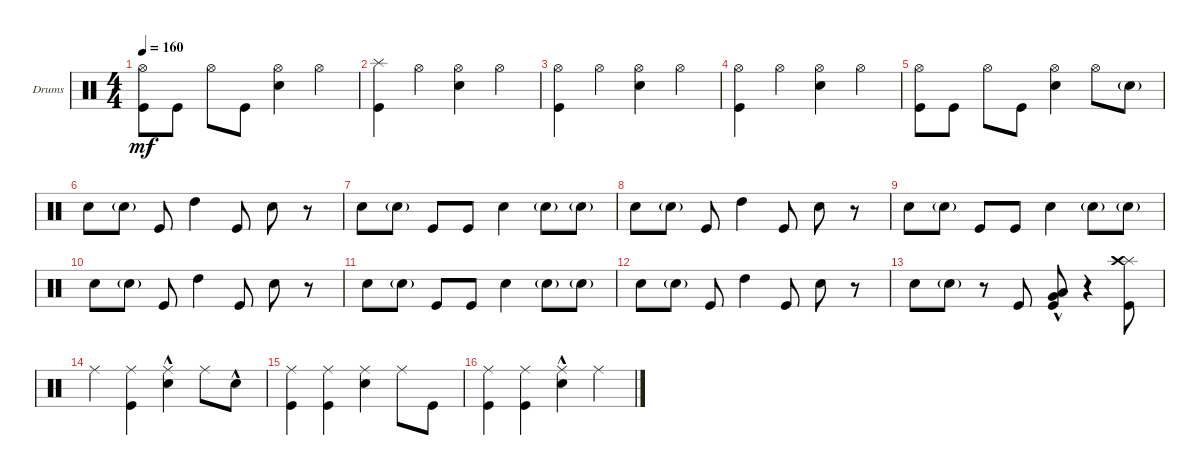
\defaultSystemsLayout 4
\bracketExtendMode groupsimilarinstruments
\firstSystemTrackNameOrientation horizontal
\otherSystemsTrackNameOrientation horizontal
\track ("Drumkit" "Drums") {instrument percussion}
\staff {score}
\articulation defaults
\ts (4 4)
\tempo 160
\clef neutral
\scale
0.333333
\ks c
("Kick (hit)" "Hi-Hat (open)").8{dy mf} "Kick (hit)".8 "Hi-Hat (open)".8 "Kick (hit)".8 ("Snare (hit) 2" "Hi-Hat (open)").4 "Hi-Hat (open)".4 |
\scale
0.333333 ("Kick (hit)" "Splash (hit)").4 "Hi-Hat (open)".4 ("Snare (hit) 2" "Hi-Hat (open)").4 "Hi-Hat (open)".4 |
\scale
0.333333 ("Kick (hit)" "Hi-Hat (open)").4 "Hi-Hat (open)".4 ("Snare (hit) 2" "Hi-Hat (open)").4 "Hi-Hat (open)".4 |
\scale
0.333333 ("Kick (hit)" "Hi-Hat (open)").4 "Hi-Hat (open)".4 ("Snare (hit) 2" "Hi-Hat (open)").4 "Hi-Hat (open)".4 |
\scale
0.333333 ("Kick (hit)" "Hi-Hat (open)").8 "Kick (hit)".8 "Hi-Hat (open)".8 "Kick (hit)".8 ("Snare (hit) 2" "Hi-Hat (open)").4 "Hi-Hat (open)".8 "Snare (hit) 2"{g}.8 |
\scale
0.333333 "Snare (hit) 2".8 "Snare (hit) 2"{g}.8 "Kick (hit)".8 "High Tom (hit)".4 "Kick (hit)".8 "Snare (hit) 2".8 r.8 |
\scale
0.333333 "Snare (hit) 2".8 "Snare (hit) 2"{g}.8 "Kick (hit)".8 "Kick (hit)".8 "Snare (hit) 2".4 "Snare (hit) 2"{g}.8 "Snare (hit) 2"{g}.8 |
\scale
0.333333 "Snare (hit) 2".8 "Snare (hit) 2"{g}.8 "Kick (hit)".8 "High Tom (hit)".4 "Kick (hit)".8 "Snare (hit) 2".8 r.8 |
\scale
0.333333 "Snare (hit) 2".8 "Snare (hit) 2"{g}.8 "Kick (hit)".8 "Kick (hit)".8 "Snare (hit) 2".4 "Snare (hit) 2"{g}.8 "Snare (hit) 2"{g}.8 |
\scale
0.333333 "Snare (hit) 2".8 "Snare (hit) 2"{g}.8 "Kick (hit)".8 "High Tom (hit)".4 "Kick (hit)".8 "Snare (hit) 2".8 r.8 |
\scale
0.333333 "Snare (hit) 2".8 "Snare (hit) 2"{g}.8 "Kick (hit)".8 "Kick (hit)".8 "Snare (hit) 2".4 "Snare (hit) 2"{g}.8 "Snare (hit) 2"{g}.8 |
\scale
0.333333 "Snare (hit) 2".8 "Snare (hit) 2"{g}.8 "Kick (hit)".8 "High Tom (hit)".4 "Kick (hit)".8 "Snare (hit) 2".8 r.8 |
\scale
0.333333 "Snare (hit) 2".8 "Snare (hit) 2"{g}.8 r.8 "Kick (hit)".8 ("Kick (hit)"{hac} "Low Tom (hit)"{hac} "Very Low Tom (hit)"{hac}).8 r.4 ("Kick (hit)" "Splash (hit)" "Crash high (hit)").8 |
\scale
0.333333 "Ride (middle)".4 ("Kick (hit)" "Ride (middle)").4 ("Snare (hit) 2"{hac} "Ride (middle)").4 "Ride (middle)".8 "Snare (hit) 2"{hac}.8 |
\scale
0.333333 ("Kick (hit)" "Ride (middle)").4 ("Kick (hit)" "Ride (middle)").4 ("Snare (hit) 2" "Ride (middle)").4 "Ride (middle)".8 "Kick (hit)".8 |
\scale
0.333333 ("Kick (hit)" "Ride (middle)").4 ("Kick (hit)" "Ride (middle)").4 ("Snare (hit) 2"{hac} "Ride (middle)").4 "Ride (middle)".4
